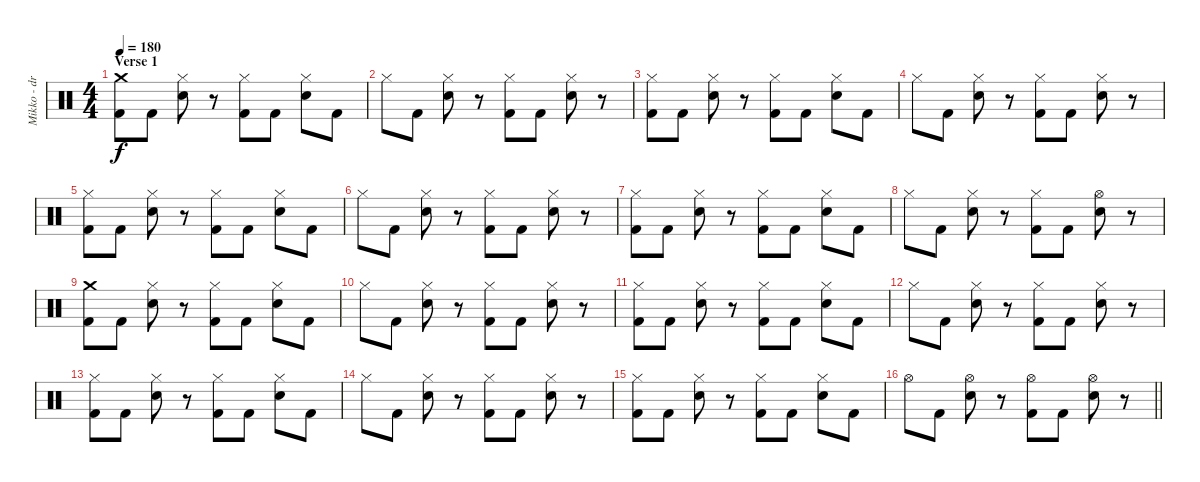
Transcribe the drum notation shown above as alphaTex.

\track ("Mikko - drums" "Mikko - dr") {instrument percussion}
\staff {score}
\articulation defaults
\ts (4 4)
\section ("" "Verse 1")
\tempo 180
\clef neutral
\ks c
("Crash medium (hit)" "Kick (hit) 2").8{dy f} "Kick (hit) 2".8 ("Hi-Hat (closed)" "Snare (hit) 2").8 r.8 ("Hi-Hat (closed)" "Kick (hit) 2").8 "Kick (hit) 2".8 ("Hi-Hat (closed)" "Snare (hit) 2").8 "Kick (hit) 2".8 |
"Hi-Hat (closed)".8 "Kick (hit) 2".8 ("Hi-Hat (closed)" "Snare (hit) 2").8 r.8 ("Hi-Hat (closed)" "Kick (hit) 2").8 "Kick (hit) 2".8 ("Hi-Hat (closed)" "Snare (hit) 2").8 r.8 |
("Hi-Hat (closed)" "Kick (hit) 2").8 "Kick (hit) 2".8 ("Hi-Hat (closed)" "Snare (hit) 2").8 r.8 ("Hi-Hat (closed)" "Kick (hit) 2").8 "Kick (hit) 2".8 ("Hi-Hat (closed)" "Snare (hit) 2").8 "Kick (hit) 2".8 |
"Hi-Hat (closed)".8 "Kick (hit) 2".8 ("Hi-Hat (closed)" "Snare (hit) 2").8 r.8 ("Hi-Hat (closed)" "Kick (hit) 2").8 "Kick (hit) 2".8 ("Hi-Hat (closed)" "Snare (hit) 2").8 r.8 |
("Hi-Hat (closed)" "Kick (hit) 2").8 "Kick (hit) 2".8 ("Hi-Hat (closed)" "Snare (hit) 2").8 r.8 ("Hi-Hat (closed)" "Kick (hit) 2").8 "Kick (hit) 2".8 ("Hi-Hat (closed)" "Snare (hit) 2").8 "Kick (hit) 2".8 |
"Hi-Hat (closed)".8 "Kick (hit) 2".8 ("Hi-Hat (closed)" "Snare (hit) 2").8 r.8 ("Hi-Hat (closed)" "Kick (hit) 2").8 "Kick (hit) 2".8 ("Hi-Hat (closed)" "Snare (hit) 2").8 r.8 |
("Hi-Hat (closed)" "Kick (hit) 2").8 "Kick (hit) 2".8 ("Hi-Hat (closed)" "Snare (hit) 2").8 r.8 ("Hi-Hat (closed)" "Kick (hit) 2").8 "Kick (hit) 2".8 ("Hi-Hat (closed)" "Snare (hit) 2").8 "Kick (hit) 2".8 |
"Hi-Hat (closed)".8 "Kick (hit) 2".8 ("Hi-Hat (closed)" "Snare (hit) 2").8 r.8 ("Hi-Hat (closed)" "Kick (hit) 2").8 "Kick (hit) 2".8 ("Hi-Hat (open)" "Snare (hit) 2").8 r.8 |
("Crash medium (hit)" "Kick (hit) 2").8 "Kick (hit) 2".8 ("Hi-Hat (closed)" "Snare (hit) 2").8 r.8 ("Hi-Hat (closed)" "Kick (hit) 2").8 "Kick (hit) 2".8 ("Hi-Hat (closed)" "Snare (hit) 2").8 "Kick (hit) 2".8 |
"Hi-Hat (closed)".8 "Kick (hit) 2".8 ("Hi-Hat (closed)" "Snare (hit) 2").8 r.8 ("Hi-Hat (closed)" "Kick (hit) 2").8 "Kick (hit) 2".8 ("Hi-Hat (closed)" "Snare (hit) 2").8 r.8 |
("Hi-Hat (closed)" "Kick (hit) 2").8 "Kick (hit) 2".8 ("Hi-Hat (closed)" "Snare (hit) 2").8 r.8 ("Hi-Hat (closed)" "Kick (hit) 2").8 "Kick (hit) 2".8 ("Hi-Hat (closed)" "Snare (hit) 2").8 "Kick (hit) 2".8 |
"Hi-Hat (closed)".8 "Kick (hit) 2".8 ("Hi-Hat (closed)" "Snare (hit) 2").8 r.8 ("Hi-Hat (closed)" "Kick (hit) 2").8 "Kick (hit) 2".8 ("Hi-Hat (closed)" "Snare (hit) 2").8 r.8 |
("Hi-Hat (closed)" "Kick (hit) 2").8 "Kick (hit) 2".8 ("Hi-Hat (closed)" "Snare (hit) 2").8 r.8 ("Hi-Hat (closed)" "Kick (hit) 2").8 "Kick (hit) 2".8 ("Hi-Hat (closed)" "Snare (hit) 2").8 "Kick (hit) 2".8 |
"Hi-Hat (closed)".8 "Kick (hit) 2".8 ("Hi-Hat (closed)" "Snare (hit) 2").8 r.8 ("Hi-Hat (closed)" "Kick (hit) 2").8 "Kick (hit) 2".8 ("Hi-Hat (closed)" "Snare (hit) 2").8 r.8 |
("Hi-Hat (closed)" "Kick (hit) 2").8 "Kick (hit) 2".8 ("Hi-Hat (closed)" "Snare (hit) 2").8 r.8 ("Hi-Hat (closed)" "Kick (hit) 2").8 "Kick (hit) 2".8 ("Hi-Hat (closed)" "Snare (hit) 2").8 "Kick (hit) 2".8 |
\barLineRight lightlight "Hi-Hat (open)".8 "Kick (hit) 2".8
("Hi-Hat (open)" "Snare (hit) 2").8 r.8 ("Hi-Hat (open)" "Kick (hit) 2").8 "Kick (hit) 2".8 ("Hi-Hat (open)" "Snare (hit) 2").8 r.8
